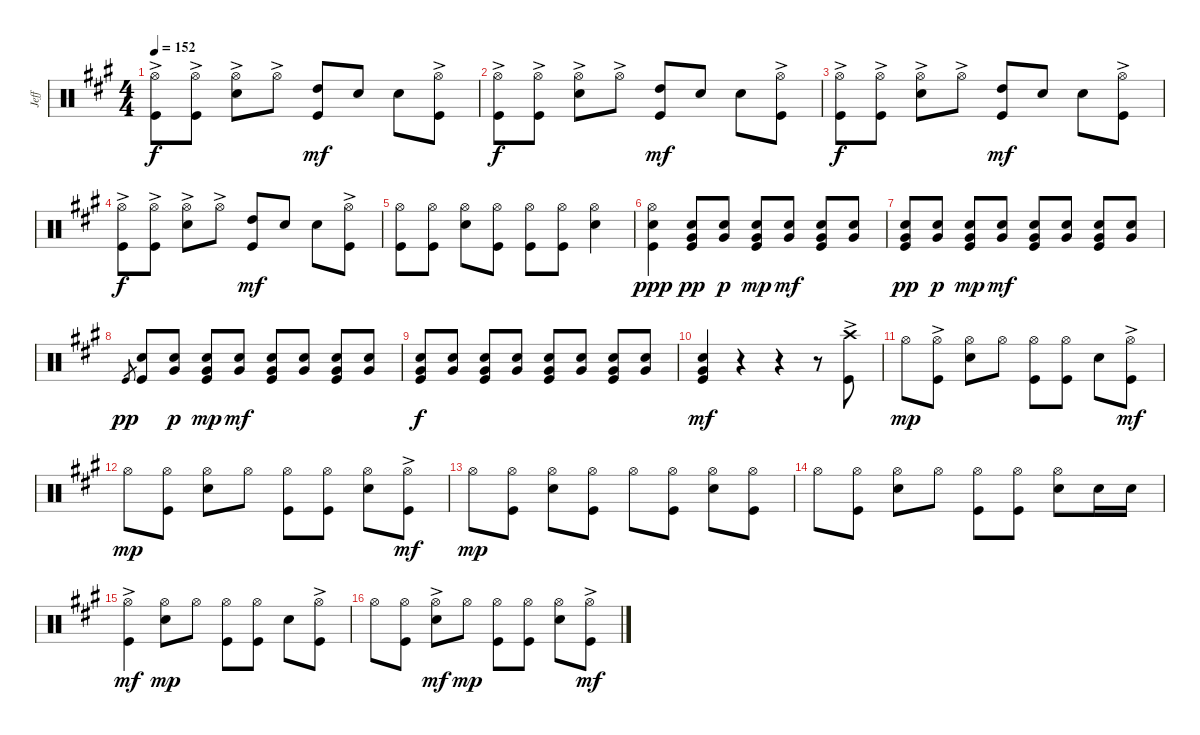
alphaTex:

\track ("Jeff" "Jeff") {instrument percussion}
\staff {score}
\articulation defaults
\ts (4 4)
\tempo 152
\clef neutral
\ks a
("Hi-Hat (open)"{ac} "Kick (hit)"{ac}).8{dy f} ("Hi-Hat (open)"{ac} "Kick (hit)"{ac}).8 ("Hi-Hat (open)"{ac} "Snare (hit) 2"{ac}).8 "Hi-Hat (open)"{ac}.8 ("High Tom (hit)" "Kick (hit)").8{dy mf} "Snare (hit) 2".8 "Snare (hit) 2".8 ("Hi-Hat (open)"{ac} "Kick (hit)").8 |
("Hi-Hat (open)"{ac} "Kick (hit)"{ac}).8{dy f} ("Hi-Hat (open)"{ac} "Kick (hit)"{ac}).8 ("Hi-Hat (open)"{ac} "Snare (hit) 2"{ac}).8 "Hi-Hat (open)"{ac}.8 ("High Tom (hit)" "Kick (hit)").8{dy mf} "Snare (hit) 2".8 "Snare (hit) 2".8 ("Hi-Hat (open)"{ac} "Kick (hit)").8 |
("Hi-Hat (open)"{ac} "Kick (hit)"{ac}).8{dy f} ("Hi-Hat (open)"{ac} "Kick (hit)"{ac}).8 ("Hi-Hat (open)"{ac} "Snare (hit) 2"{ac}).8 "Hi-Hat (open)"{ac}.8 ("High Tom (hit)" "Kick (hit)").8{dy mf} "Snare (hit) 2".8 "Snare (hit) 2".8 ("Hi-Hat (open)"{ac} "Kick (hit)").8 |
("Hi-Hat (open)"{ac} "Kick (hit)"{ac}).8{dy f} ("Hi-Hat (open)"{ac} "Kick (hit)"{ac}).8 ("Hi-Hat (open)"{ac} "Snare (hit) 2"{ac}).8 "Hi-Hat (open)"{ac}.8 ("High Tom (hit)" "Kick (hit)").8{dy mf} "Snare (hit) 2".8 "Snare (hit) 2".8 ("Hi-Hat (open)"{ac} "Kick (hit)").8 |
("Hi-Hat (open)" "Kick (hit)").8 ("Hi-Hat (open)" "Kick (hit)").8 ("Hi-Hat (open)" "Snare (hit) 2").8 ("Hi-Hat (open)" "Kick (hit)").8 ("Hi-Hat (open)" "Kick (hit)").8 ("Hi-Hat (open)" "Kick (hit)").8 ("Hi-Hat (open)" "Snare (hit) 2").4 |
("Hi-Hat (open)" "Kick (hit)" "Snare (hit) 2").4{dy ppp} ("Snare (hit) 2" "Very Low Tom (hit)" "Kick (hit)").8{dy pp} ("Snare (hit) 2" "Very Low Tom (hit)").8{dy p} ("Snare (hit) 2" "Very Low Tom (hit)" "Kick (hit)").8{dy mp} ("Snare (hit) 2" "Very Low Tom (hit)").8{dy mf} ("Snare (hit) 2" "Very Low Tom (hit)" "Kick (hit)").8 ("Snare (hit) 2" "Very Low Tom (hit)").8 |
("Snare (hit) 2" "Very Low Tom (hit)" "Kick (hit)").8{dy pp} ("Snare (hit) 2" "Very Low Tom (hit)").8{dy p} ("Snare (hit) 2" "Very Low Tom (hit)" "Kick (hit)").8{dy mp} ("Snare (hit) 2" "Very Low Tom (hit)").8{dy mf} ("Snare (hit) 2" "Very Low Tom (hit)" "Kick (hit)").8 ("Snare (hit) 2" "Very Low Tom (hit)").8 ("Snare (hit) 2" "Very Low Tom (hit)" "Kick (hit)").8 ("Snare (hit) 2" "Very Low Tom (hit)").8 |
"Kick (hit)".8{gr dy pp} ("Snare (hit) 2" "Kick (hit)").8 ("Snare (hit) 2" "Very Low Tom (hit)").8{dy p} ("Snare (hit) 2" "Very Low Tom (hit)" "Kick (hit)").8{dy mp} ("Snare (hit) 2" "Very Low Tom (hit)").8{dy mf} ("Snare (hit) 2" "Very Low Tom (hit)" "Kick (hit)").8 ("Snare (hit) 2" "Very Low Tom (hit)").8 ("Snare (hit) 2" "Very Low Tom (hit)" "Kick (hit)").8 ("Snare (hit) 2" "Very Low Tom (hit)").8 |
("Snare (hit) 2" "Very Low Tom (hit)" "Kick (hit)").8{dy f} ("Snare (hit) 2" "Very Low Tom (hit)").8 ("Snare (hit) 2" "Very Low Tom (hit)" "Kick (hit)").8 ("Snare (hit) 2" "Very Low Tom (hit)").8 ("Snare (hit) 2" "Very Low Tom (hit)" "Kick (hit)").8 ("Snare (hit) 2" "Very Low Tom (hit)").8 ("Snare (hit) 2" "Very Low Tom (hit)" "Kick (hit)").8 ("Snare (hit) 2" "Very Low Tom (hit)").8 |
("Snare (hit) 2" "Very Low Tom (hit)" "Kick (hit)").4{dy mf} r.4 r.4 r.8 ("Crash high (hit)" "Kick (hit)"{ac}).8 |
"Hi-Hat (open)".8{dy mp} ("Hi-Hat (open)"{ac} "Kick (hit)").8 ("Hi-Hat (open)" "Snare (hit) 2").8 "Hi-Hat (open)".8 ("Hi-Hat (open)" "Kick (hit)").8 ("Hi-Hat (open)" "Kick (hit)").8 "Snare (hit) 2".8 ("Hi-Hat (open)" "Kick (hit)"{ac}).8{dy mf} |
"Hi-Hat (open)".8{dy mp} ("Hi-Hat (open)" "Kick (hit)").8 ("Hi-Hat (open)" "Snare (hit) 2").8 "Hi-Hat (open)".8 ("Hi-Hat (open)" "Kick (hit)").8 ("Hi-Hat (open)" "Kick (hit)").8 ("Hi-Hat (open)" "Snare (hit) 2").8 ("Hi-Hat (open)" "Kick (hit)"{ac}).8{dy mf} |
"Hi-Hat (open)".8{dy mp} ("Hi-Hat (open)" "Kick (hit)").8 ("Hi-Hat (open)" "Snare (hit) 2").8 ("Hi-Hat (open)" "Kick (hit)").8 "Hi-Hat (open)".8 ("Hi-Hat (open)" "Kick (hit)").8 ("Hi-Hat (open)" "Snare (hit) 2").8 ("Hi-Hat (open)" "Kick (hit)").8 |
"Hi-Hat (open)".8 ("Hi-Hat (open)" "Kick (hit)").8 ("Hi-Hat (open)" "Snare (hit) 2").8 "Hi-Hat (open)".8 ("Hi-Hat (open)" "Kick (hit)").8 ("Hi-Hat (open)" "Kick (hit)").8 ("Hi-Hat (open)" "Snare (hit) 2").8 "Snare (hit) 2".16 "Snare (hit) 2".16 |
("Hi-Hat (open)" "Kick (hit)"{ac}).4{dy mf} ("Hi-Hat (open)" "Snare (hit) 2").8{dy mp} "Hi-Hat (open)".8 ("Hi-Hat (open)" "Kick (hit)").8 ("Hi-Hat (open)" "Kick (hit)").8 "Snare (hit) 2".8 ("Hi-Hat (open)"{ac} "Kick (hit)").8 |
"Hi-Hat (open)".8 ("Hi-Hat (open)" "Kick (hit)").8 ("Hi-Hat (open)" "Snare (hit) 2"{ac}).8{dy mf} "Hi-Hat (open)".8{dy mp} ("Hi-Hat (open)" "Kick (hit)").8 ("Hi-Hat (open)" "Kick (hit)").8 ("Hi-Hat (open)" "Snare (hit) 2").8 ("Hi-Hat (open)" "Kick (hit)"{ac}).8{dy mf}
